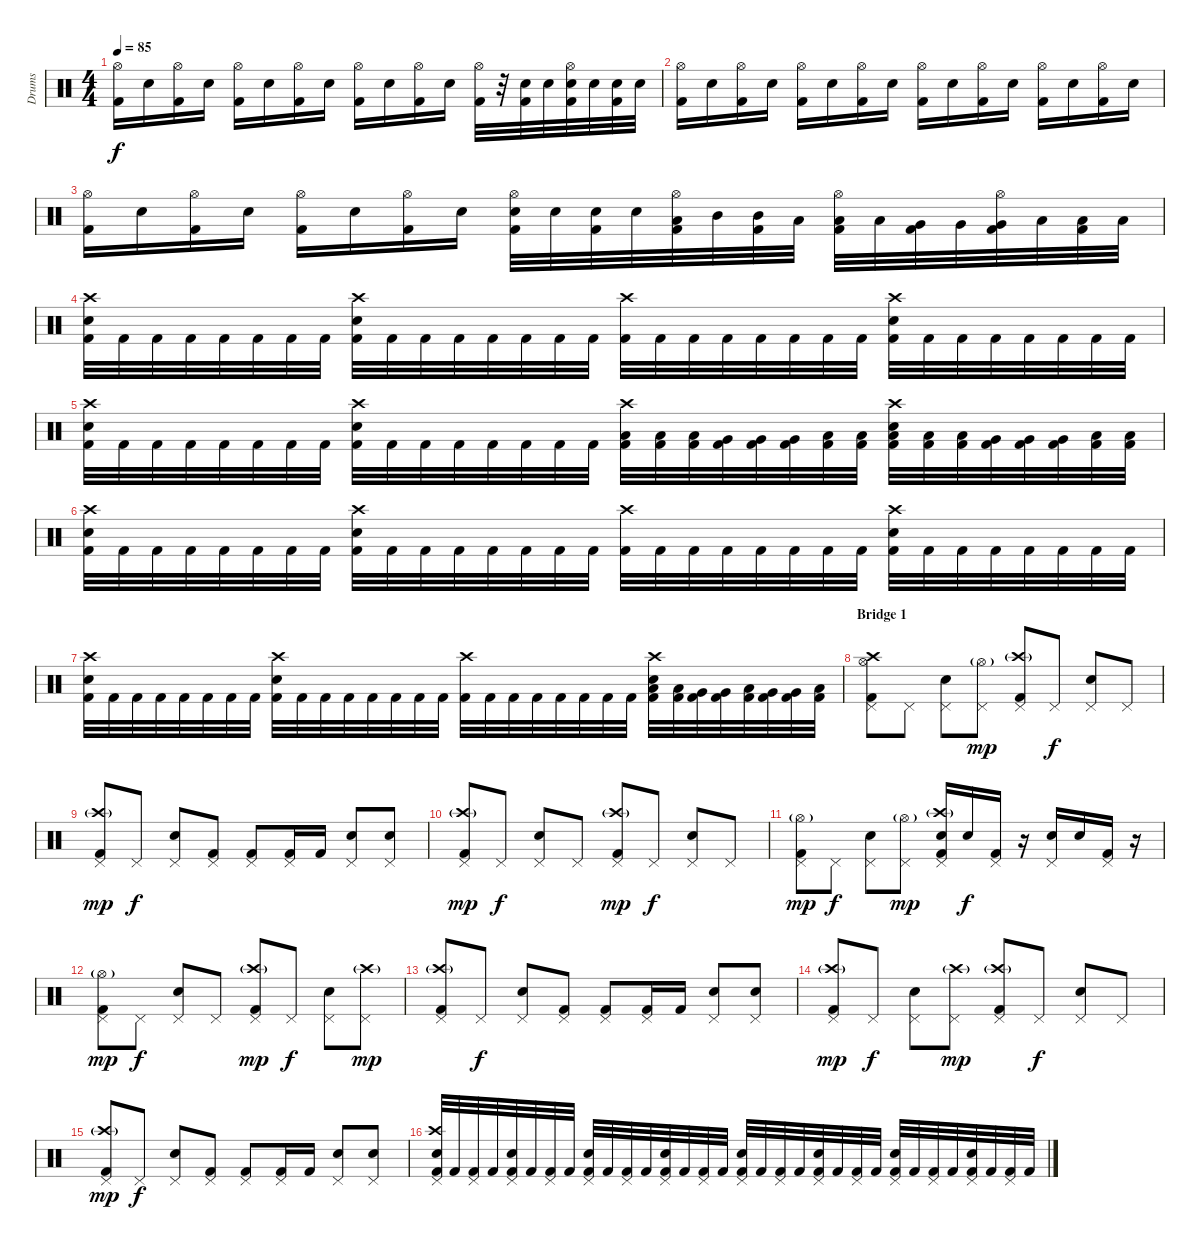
\track ("Drums" "Drums") {instrument percussion}
\staff {score}
\articulation defaults
\ts (4 4)
\tempo 85
\clef neutral
\ks c
("Hi-Hat (open)" "Kick (hit) 2").16{dy f} "Electric Snare (hit)".16 ("Hi-Hat (open)" "Kick (hit) 2").16 "Electric Snare (hit)".16 ("Hi-Hat (open)" "Kick (hit) 2").16 "Electric Snare (hit)".16 ("Hi-Hat (open)" "Kick (hit) 2").16 "Electric Snare (hit)".16 ("Hi-Hat (open)" "Kick (hit) 2").16 "Electric Snare (hit)".16 ("Hi-Hat (open)" "Kick (hit) 2").16 "Electric Snare (hit)".16 ("Hi-Hat (open)" "Kick (hit) 2").32 r.32 ("Electric Snare (hit)" "Kick (hit) 2").32 "Electric Snare (hit)".32 ("Hi-Hat (open)" "Electric Snare (hit)" "Kick (hit) 2").32 "Electric Snare (hit)".32 ("Electric Snare (hit)" "Kick (hit) 2").32 "Electric Snare (hit)".32 |
("Hi-Hat (open)" "Kick (hit) 2").16 "Electric Snare (hit)".16 ("Hi-Hat (open)" "Kick (hit) 2").16 "Electric Snare (hit)".16 ("Hi-Hat (open)" "Kick (hit) 2").16 "Electric Snare (hit)".16 ("Hi-Hat (open)" "Kick (hit) 2").16 "Electric Snare (hit)".16 ("Hi-Hat (open)" "Kick (hit) 2").16 "Electric Snare (hit)".16 ("Hi-Hat (open)" "Kick (hit) 2").16 "Electric Snare (hit)".16 ("Hi-Hat (open)" "Kick (hit) 2").16 "Electric Snare (hit)".16 ("Hi-Hat (open)" "Kick (hit) 2").16 "Electric Snare (hit)".16 |
("Hi-Hat (open)" "Kick (hit) 2").16 "Electric Snare (hit)".16 ("Hi-Hat (open)" "Kick (hit) 2").16 "Electric Snare (hit)".16 ("Hi-Hat (open)" "Kick (hit) 2").16 "Electric Snare (hit)".16 ("Hi-Hat (open)" "Kick (hit) 2").16 "Electric Snare (hit)".16 ("Hi-Hat (open)" "Electric Snare (hit)" "Kick (hit) 2").32 "Electric Snare (hit)".32 ("Electric Snare (hit)" "Kick (hit) 2").32 "Electric Snare (hit)".32 ("Hi-Hat (open)" "Low Tom (hit)" "Kick (hit) 2").32 "Mid Tom (hit)".32 ("Mid Tom (hit)" "Kick (hit) 2").32 "Low Tom (hit)".32 ("Hi-Hat (open)" "Low Tom (hit)" "Kick (hit) 2").32 "Low Tom (hit)".32 ("Very Low Tom (hit)" "Kick (hit) 2").32 "Very Low Tom (hit)".32 ("Hi-Hat (open)" "Very Low Tom (hit)" "Kick (hit) 2").32 "Low Floor Tom (hit)".32 ("Low Floor Tom (hit)" "Kick (hit) 2").32 "Low Floor Tom (hit)".32 |
("Electric Snare (hit)" "Crash high (hit)" "Kick (hit) 2").32 "Kick (hit) 2".32 "Kick (hit) 2".32 "Kick (hit) 2".32 "Kick (hit) 2".32 "Kick (hit) 2".32 "Kick (hit) 2".32 "Kick (hit) 2".32 ("Electric Snare (hit)" "Crash high (hit)" "Kick (hit) 2").32 "Kick (hit) 2".32 "Kick (hit) 2".32 "Kick (hit) 2".32 "Kick (hit) 2".32 "Kick (hit) 2".32 "Kick (hit) 2".32 "Kick (hit) 2".32 ("Crash high (hit)" "Kick (hit) 2").32 "Kick (hit) 2".32 "Kick (hit) 2".32 "Kick (hit) 2".32 "Kick (hit) 2".32 "Kick (hit) 2".32 "Kick (hit) 2".32 "Kick (hit) 2".32 ("Electric Snare (hit)" "Crash high (hit)" "Kick (hit) 2").32 "Kick (hit) 2".32 "Kick (hit) 2".32 "Kick (hit) 2".32 "Kick (hit) 2".32 "Kick (hit) 2".32 "Kick (hit) 2".32 "Kick (hit) 2".32 |
("Electric Snare (hit)" "Crash high (hit)" "Kick (hit) 2").32 "Kick (hit) 2".32 "Kick (hit) 2".32 "Kick (hit) 2".32 "Kick (hit) 2".32 "Kick (hit) 2".32 "Kick (hit) 2".32 "Kick (hit) 2".32 ("Electric Snare (hit)" "Crash high (hit)" "Kick (hit) 2").32 "Kick (hit) 2".32 "Kick (hit) 2".32 "Kick (hit) 2".32 "Kick (hit) 2".32 "Kick (hit) 2".32 "Kick (hit) 2".32 "Kick (hit) 2".32 ("Low Tom (hit)" "Crash high (hit)" "Kick (hit) 2").32 ("Low Tom (hit)" "Kick (hit) 2").32 ("Low Tom (hit)" "Kick (hit) 2").32 ("Very Low Tom (hit)" "Kick (hit) 2").32 ("Very Low Tom (hit)" "Kick (hit) 2").32 ("Very Low Tom (hit)" "Kick (hit) 2").32 ("Low Floor Tom (hit)" "Kick (hit) 2").32 ("Low Floor Tom (hit)" "Kick (hit) 2").32 ("Low Tom (hit)" "Electric Snare (hit)" "Crash high (hit)" "Kick (hit) 2").32 ("Low Tom (hit)" "Kick (hit) 2").32 ("Low Tom (hit)" "Kick (hit) 2").32 ("Very Low Tom (hit)" "Kick (hit) 2").32 ("Very Low Tom (hit)" "Kick (hit) 2").32 ("Very Low Tom (hit)" "Kick (hit) 2").32 ("Low Floor Tom (hit)" "Kick (hit) 2").32 ("Low Floor Tom (hit)" "Kick (hit) 2").32 |
("Electric Snare (hit)" "Crash high (hit)" "Kick (hit) 2").32 "Kick (hit) 2".32 "Kick (hit) 2".32 "Kick (hit) 2".32 "Kick (hit) 2".32 "Kick (hit) 2".32 "Kick (hit) 2".32 "Kick (hit) 2".32 ("Electric Snare (hit)" "Crash high (hit)" "Kick (hit) 2").32 "Kick (hit) 2".32 "Kick (hit) 2".32 "Kick (hit) 2".32 "Kick (hit) 2".32 "Kick (hit) 2".32 "Kick (hit) 2".32 "Kick (hit) 2".32 ("Crash high (hit)" "Kick (hit) 2").32 "Kick (hit) 2".32 "Kick (hit) 2".32 "Kick (hit) 2".32 "Kick (hit) 2".32 "Kick (hit) 2".32 "Kick (hit) 2".32 "Kick (hit) 2".32 ("Electric Snare (hit)" "Crash high (hit)" "Kick (hit) 2").32 "Kick (hit) 2".32 "Kick (hit) 2".32 "Kick (hit) 2".32 "Kick (hit) 2".32 "Kick (hit) 2".32 "Kick (hit) 2".32 "Kick (hit) 2".32 |
("Electric Snare (hit)" "Crash high (hit)" "Kick (hit) 2").32 "Kick (hit) 2".32 "Kick (hit) 2".32 "Kick (hit) 2".32 "Kick (hit) 2".32 "Kick (hit) 2".32 "Kick (hit) 2".32 "Kick (hit) 2".32 ("Electric Snare (hit)" "Crash high (hit)" "Kick (hit) 2").32 "Kick (hit) 2".32 "Kick (hit) 2".32 "Kick (hit) 2".32 "Kick (hit) 2".32 "Kick (hit) 2".32 "Kick (hit) 2".32 "Kick (hit) 2".32 ("Crash high (hit)" "Kick (hit) 2").32 "Kick (hit) 2".32 "Kick (hit) 2".32 "Kick (hit) 2".32 "Kick (hit) 2".32 "Kick (hit) 2".32 "Kick (hit) 2".32 "Kick (hit) 2".32 ("Low Tom (hit)" "Electric Snare (hit)" "Crash high (hit)" "Kick (hit) 2").32 ("Low Tom (hit)" "Kick (hit) 2").32 ("Very Low Tom (hit)" "Kick (hit) 2").32 ("Very Low Tom (hit)" "Kick (hit) 2").32 ("Low Tom (hit)" "Kick (hit) 2").32 ("Very Low Tom (hit)" "Kick (hit) 2").32 ("Very Low Tom (hit)" "Kick (hit) 2").32 ("Low Floor Tom (hit)" "Kick (hit) 2").32 |
\section ("" "Bridge 1")
("Pedal Hi-Hat (hit)" "Hi-Hat (open)" "Crash high (hit)" "Kick (hit) 2").8 "Pedal Hi-Hat (hit)".8 ("Pedal Hi-Hat (hit)" "Electric Snare (hit)").8 ("Pedal Hi-Hat (hit)" "Hi-Hat (open)"{g}).8{dy mp} ("Pedal Hi-Hat (hit)" "Crash high (hit)"{g} "Kick (hit) 2").8 "Pedal Hi-Hat (hit)".8{dy f} ("Pedal Hi-Hat (hit)" "Electric Snare (hit)").8 "Pedal Hi-Hat (hit)".8 |
("Pedal Hi-Hat (hit)" "Crash high (hit)"{g} "Kick (hit) 2").8{dy mp} "Pedal Hi-Hat (hit)".8{dy f} ("Pedal Hi-Hat (hit)" "Electric Snare (hit)").8 ("Pedal Hi-Hat (hit)" "Kick (hit) 2").8 ("Pedal Hi-Hat (hit)" "Kick (hit) 2").8 ("Pedal Hi-Hat (hit)" "Kick (hit) 2").16 "Kick (hit) 2".16 ("Pedal Hi-Hat (hit)" "Electric Snare (hit)").8 ("Pedal Hi-Hat (hit)" "Electric Snare (hit)").8 |
("Pedal Hi-Hat (hit)" "Crash high (hit)"{g} "Kick (hit) 2").8{dy mp} "Pedal Hi-Hat (hit)".8{dy f} ("Pedal Hi-Hat (hit)" "Electric Snare (hit)").8 "Pedal Hi-Hat (hit)".8 ("Pedal Hi-Hat (hit)" "Crash high (hit)"{g} "Kick (hit) 2").8{dy mp} "Pedal Hi-Hat (hit)".8{dy f} ("Pedal Hi-Hat (hit)" "Electric Snare (hit)").8 "Pedal Hi-Hat (hit)".8 |
("Pedal Hi-Hat (hit)" "Hi-Hat (open)"{g} "Kick (hit) 2").8{dy mp} "Pedal Hi-Hat (hit)".8{dy f} ("Pedal Hi-Hat (hit)" "Electric Snare (hit)").8 ("Pedal Hi-Hat (hit)" "Hi-Hat (open)"{g}).8{dy mp} ("Pedal Hi-Hat (hit)" "Crash high (hit)"{g} "Electric Snare (hit)" "Kick (hit) 2").16 "Electric Snare (hit)".16{dy f} ("Pedal Hi-Hat (hit)" "Kick (hit) 2").16 r.16 ("Pedal Hi-Hat (hit)" "Electric Snare (hit)").16 "Electric Snare (hit)".16 ("Pedal Hi-Hat (hit)" "Kick (hit) 2").16 r.16 |
("Pedal Hi-Hat (hit)" "Hi-Hat (open)"{g} "Kick (hit) 2").8{dy mp} "Pedal Hi-Hat (hit)".8{dy f} ("Pedal Hi-Hat (hit)" "Electric Snare (hit)").8 "Pedal Hi-Hat (hit)".8 ("Pedal Hi-Hat (hit)" "Crash high (hit)"{g} "Kick (hit) 2").8{dy mp} "Pedal Hi-Hat (hit)".8{dy f} ("Pedal Hi-Hat (hit)" "Electric Snare (hit)").8 ("Pedal Hi-Hat (hit)" "Crash high (hit)"{g}).8{dy mp} |
("Pedal Hi-Hat (hit)" "Crash high (hit)"{g} "Kick (hit) 2").8 "Pedal Hi-Hat (hit)".8{dy f} ("Pedal Hi-Hat (hit)" "Electric Snare (hit)").8 ("Pedal Hi-Hat (hit)" "Kick (hit) 2").8 ("Pedal Hi-Hat (hit)" "Kick (hit) 2").8 ("Pedal Hi-Hat (hit)" "Kick (hit) 2").16 "Kick (hit) 2".16 ("Pedal Hi-Hat (hit)" "Electric Snare (hit)").8 ("Pedal Hi-Hat (hit)" "Electric Snare (hit)").8 |
("Pedal Hi-Hat (hit)" "Crash high (hit)"{g} "Kick (hit) 2").8{dy mp} "Pedal Hi-Hat (hit)".8{dy f} ("Pedal Hi-Hat (hit)" "Electric Snare (hit)").8 ("Pedal Hi-Hat (hit)" "Crash high (hit)"{g}).8{dy mp} ("Pedal Hi-Hat (hit)" "Crash high (hit)"{g} "Kick (hit) 2").8 "Pedal Hi-Hat (hit)".8{dy f} ("Pedal Hi-Hat (hit)" "Electric Snare (hit)").8 "Pedal Hi-Hat (hit)".8 |
("Pedal Hi-Hat (hit)" "Crash high (hit)"{g} "Kick (hit) 2").8{dy mp} "Pedal Hi-Hat (hit)".8{dy f} ("Pedal Hi-Hat (hit)" "Electric Snare (hit)").8 ("Pedal Hi-Hat (hit)" "Kick (hit) 2").8 ("Pedal Hi-Hat (hit)" "Kick (hit) 2").8 ("Pedal Hi-Hat (hit)" "Kick (hit) 2").16 "Kick (hit) 2".16 ("Pedal Hi-Hat (hit)" "Electric Snare (hit)").8 ("Pedal Hi-Hat (hit)" "Electric Snare (hit)").8 |
("Pedal Hi-Hat (hit)" "Electric Snare (hit)" "Crash high (hit)" "Kick (hit) 2").32 "Kick (hit) 2".32 ("Pedal Hi-Hat (hit)" "Kick (hit) 2").32 "Kick (hit) 2".32 ("Pedal Hi-Hat (hit)" "Electric Snare (hit)" "Kick (hit) 2").32 "Kick (hit) 2".32 ("Pedal Hi-Hat (hit)" "Kick (hit) 2").32 "Kick (hit) 2".32 ("Pedal Hi-Hat (hit)" "Electric Snare (hit)" "Kick (hit) 2").32 "Kick (hit) 2".32 ("Pedal Hi-Hat (hit)" "Kick (hit) 2").32 "Kick (hit) 2".32 ("Pedal Hi-Hat (hit)" "Electric Snare (hit)" "Kick (hit) 2").32 "Kick (hit) 2".32 ("Pedal Hi-Hat (hit)" "Kick (hit) 2").32 "Kick (hit) 2".32 ("Pedal Hi-Hat (hit)" "Electric Snare (hit)" "Kick (hit) 2").32 "Kick (hit) 2".32 ("Pedal Hi-Hat (hit)" "Kick (hit) 2").32 "Kick (hit) 2".32 ("Pedal Hi-Hat (hit)" "Electric Snare (hit)" "Kick (hit) 2").32 "Kick (hit) 2".32 ("Pedal Hi-Hat (hit)" "Kick (hit) 2").32 "Kick (hit) 2".32 ("Pedal Hi-Hat (hit)" "Electric Snare (hit)" "Kick (hit) 2").32 "Kick (hit) 2".32 ("Pedal Hi-Hat (hit)" "Kick (hit) 2").32 "Kick (hit) 2".32 ("Pedal Hi-Hat (hit)" "Electric Snare (hit)" "Kick (hit) 2").32 "Kick (hit) 2".32 ("Pedal Hi-Hat (hit)" "Kick (hit) 2").32 "Kick (hit) 2".32
